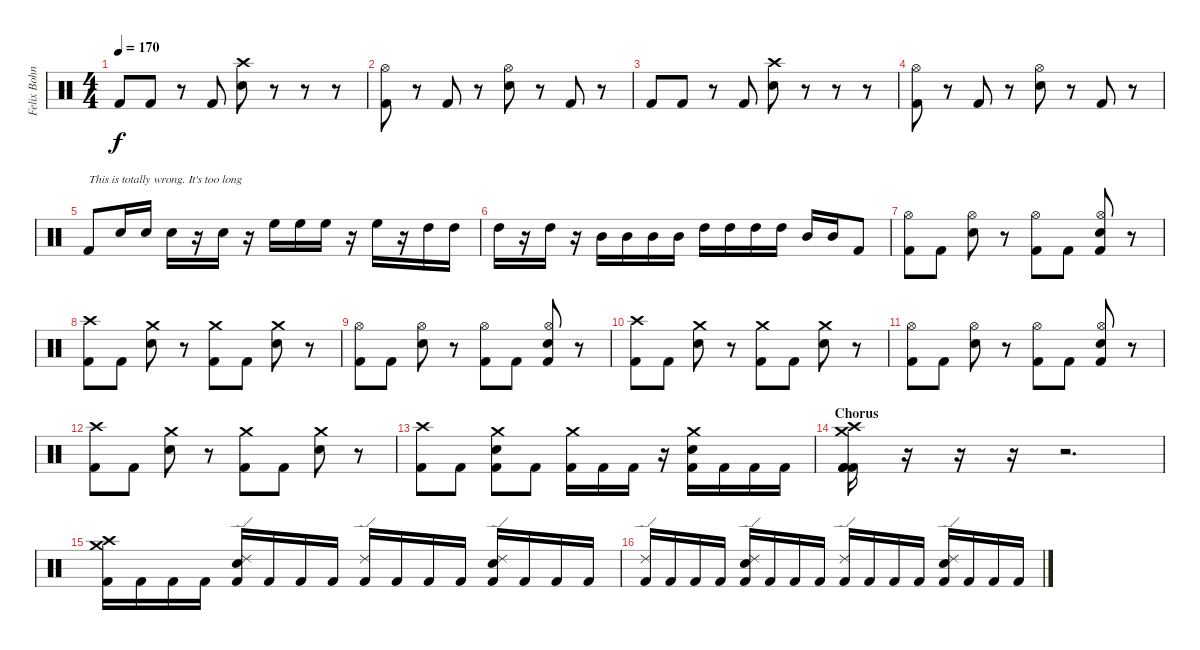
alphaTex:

\track ("Felix Bohnke" "Felix Bohn") {instrument percussion}
\staff {score}
\articulation defaults
\ts (4 4)
\tempo 170
\clef neutral
\ks c "Kick (hit) 2".8{dy f} "Kick (hit) 2".8
r.8 "Kick (hit) 2".8 ("Crash high (hit)" "Electric Snare (hit)").8 r.8 r.8 r.8 |
("Hi-Hat (open)" "Kick (hit) 2").8 r.8 "Kick (hit) 2".8 r.8 ("Hi-Hat (open)" "Electric Snare (hit)").8 r.8 "Kick (hit) 2".8 r.8 |
"Kick (hit) 2".8 "Kick (hit) 2".8 r.8 "Kick (hit) 2".8 ("Crash high (hit)" "Electric Snare (hit)").8 r.8 r.8 r.8 |
("Hi-Hat (open)" "Kick (hit) 2").8 r.8 "Kick (hit) 2".8 r.8 ("Hi-Hat (open)" "Electric Snare (hit)").8 r.8 "Kick (hit) 2".8 r.8 |
"Kick (hit) 2".8{txt "This is totally wrong. It's too long"} "Electric Snare (hit)".16 "Electric Snare (hit)".16 "Electric Snare (hit)".16 r.16 "Electric Snare (hit)".16 r.16 "High Floor Tom (hit)".16 "High Floor Tom (hit)".16 "High Floor Tom (hit)".16 r.16 "High Floor Tom (hit)".16 r.16 "High Tom (hit)".16 "High Tom (hit)".16 |
"High Tom (hit)".16 r.16 "High Tom (hit)".16 r.16 "Mid Tom (hit)".16 "Mid Tom (hit)".16 "Mid Tom (hit)".16 "Mid Tom (hit)".16 "High Tom (hit)".16 "High Tom (hit)".16 "High Tom (hit)".16 "High Tom (hit)".16 "Mid Tom (hit)".16 "Mid Tom (hit)".16 "Kick (hit) 2".8 |
("Hi-Hat (open)" "Kick (hit) 2").8 "Kick (hit) 2".8 ("Hi-Hat (open)" "Snare (hit) 2").8 r.8 ("Hi-Hat (open)" "Kick (hit) 2").8 "Kick (hit) 2".8 ("Hi-Hat (open)" "Snare (hit) 2" "Kick (hit) 2").8 r.8 |
("Crash high (hit)" "Kick (hit) 2").8 "Kick (hit) 2".8 ("Crash medium (hit)" "Snare (hit) 2").8 r.8 ("Crash medium (hit)" "Kick (hit) 2").8 "Kick (hit) 2".8 ("Crash medium (hit)" "Snare (hit) 2").8 r.8 |
("Hi-Hat (open)" "Kick (hit) 2").8 "Kick (hit) 2".8 ("Hi-Hat (open)" "Snare (hit) 2").8 r.8 ("Hi-Hat (open)" "Kick (hit) 2").8 "Kick (hit) 2".8 ("Hi-Hat (open)" "Snare (hit) 2" "Kick (hit) 2").8 r.8 |
("Crash high (hit)" "Kick (hit) 2").8 "Kick (hit) 2".8 ("Crash medium (hit)" "Snare (hit) 2").8 r.8 ("Crash medium (hit)" "Kick (hit) 2").8 "Kick (hit) 2".8 ("Crash medium (hit)" "Snare (hit) 2").8 r.8 |
("Hi-Hat (open)" "Kick (hit) 2").8 "Kick (hit) 2".8 ("Hi-Hat (open)" "Snare (hit) 2").8 r.8 ("Hi-Hat (open)" "Kick (hit) 2").8 "Kick (hit) 2".8 ("Hi-Hat (open)" "Snare (hit) 2" "Kick (hit) 2").8 r.8 |
("Crash high (hit)" "Kick (hit) 2").8 "Kick (hit) 2".8 ("Crash medium (hit)" "Snare (hit) 2").8 r.8 ("Crash medium (hit)" "Kick (hit) 2").8 "Kick (hit) 2".8 ("Crash medium (hit)" "Snare (hit) 2").8 r.8 |
("Crash high (hit)" "Kick (hit) 2").8 "Kick (hit) 2".8 ("Crash medium (hit)" "Snare (hit) 2" "Kick (hit) 2").8 "Kick (hit) 2".8 ("Crash medium (hit)" "Kick (hit) 2").16 "Kick (hit) 2".16 "Kick (hit) 2".16 r.16 ("Crash medium (hit)" "Snare (hit) 2" "Kick (hit) 2").16 "Kick (hit) 2".16 "Kick (hit) 2".16 "Kick (hit) 2".16 |
\section ("" "Chorus")
("Crash high (hit)" "Crash medium (hit)" "Kick (hit) 2" "Kick (hit) 2" "Kick (hit) 2").16 r.16 r.16 r.16 r.2{d} |
("Crash high (hit)" "Crash medium (hit)" "Kick (hit) 2").16 "Kick (hit) 2".16 "Kick (hit) 2".16 "Kick (hit) 2".16 ("Ride (edge) 2" "Snare (hit) 2" "Kick (hit) 2").16 "Kick (hit) 2".16 "Kick (hit) 2".16 "Kick (hit) 2".16 ("Ride (edge) 2" "Kick (hit) 2").16 "Kick (hit) 2".16 "Kick (hit) 2".16 "Kick (hit) 2".16 ("Ride (edge) 2" "Snare (hit) 2" "Kick (hit) 2").16 "Kick (hit) 2".16 "Kick (hit) 2".16 "Kick (hit) 2".16 |
("Ride (edge) 2" "Kick (hit) 2").16 "Kick (hit) 2".16 "Kick (hit) 2".16 "Kick (hit) 2".16 ("Ride (edge) 2" "Snare (hit) 2" "Kick (hit) 2").16 "Kick (hit) 2".16 "Kick (hit) 2".16 "Kick (hit) 2".16 ("Ride (edge) 2" "Kick (hit) 2").16 "Kick (hit) 2".16 "Kick (hit) 2".16 "Kick (hit) 2".16 ("Ride (edge) 2" "Snare (hit) 2" "Kick (hit) 2").16 "Kick (hit) 2".16 "Kick (hit) 2".16 "Kick (hit) 2".16
